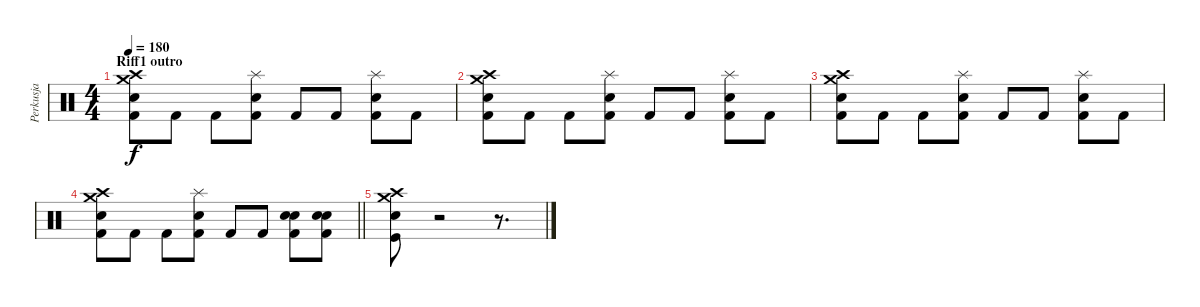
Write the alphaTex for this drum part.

\track ("Perkusja" "Perkusja") {instrument percussion}
\staff {score}
\articulation defaults
\ts (4 4)
\section ("" "Riff1 outro")
\tempo 180
\clef neutral
\ks c
("Crash medium (hit)" "Crash high (hit)" "Electric Snare (hit)" "Kick (hit) 2").8{dy f} "Kick (hit) 2".8 "Kick (hit) 2".8 ("Splash (hit)" "Electric Snare (hit)" "Kick (hit) 2").8 "Kick (hit) 2".8 "Kick (hit) 2".8 ("Splash (hit)" "Electric Snare (hit)" "Kick (hit) 2").8 "Kick (hit) 2".8 |
("Crash medium (hit)" "Crash high (hit)" "Electric Snare (hit)" "Kick (hit) 2").8 "Kick (hit) 2".8 "Kick (hit) 2".8 ("Splash (hit)" "Electric Snare (hit)" "Kick (hit) 2").8 "Kick (hit) 2".8 "Kick (hit) 2".8 ("Splash (hit)" "Electric Snare (hit)" "Kick (hit) 2").8 "Kick (hit) 2".8 |
("Crash medium (hit)" "Crash high (hit)" "Electric Snare (hit)" "Kick (hit) 2").8 "Kick (hit) 2".8 "Kick (hit) 2".8 ("Splash (hit)" "Electric Snare (hit)" "Kick (hit) 2").8 "Kick (hit) 2".8 "Kick (hit) 2".8 ("Splash (hit)" "Electric Snare (hit)" "Kick (hit) 2").8 "Kick (hit) 2".8 |
\barLineRight lightlight
("Crash medium (hit)" "Crash high (hit)" "Electric Snare (hit)" "Kick (hit) 2").8 "Kick (hit) 2".8 "Kick (hit) 2".8 ("Splash (hit)" "Electric Snare (hit)" "Kick (hit) 2").8 "Kick (hit) 2".8 "Kick (hit) 2".8 ("Snare (hit) 2" "Electric Snare (hit)" "Kick (hit) 2").8 ("Snare (hit) 2" "Electric Snare (hit)" "Kick (hit) 2").8 |
("Crash medium (hit)" "Crash high (hit)" "Electric Snare (hit)" "Kick (hit)").8 r.2 r.8{d}
